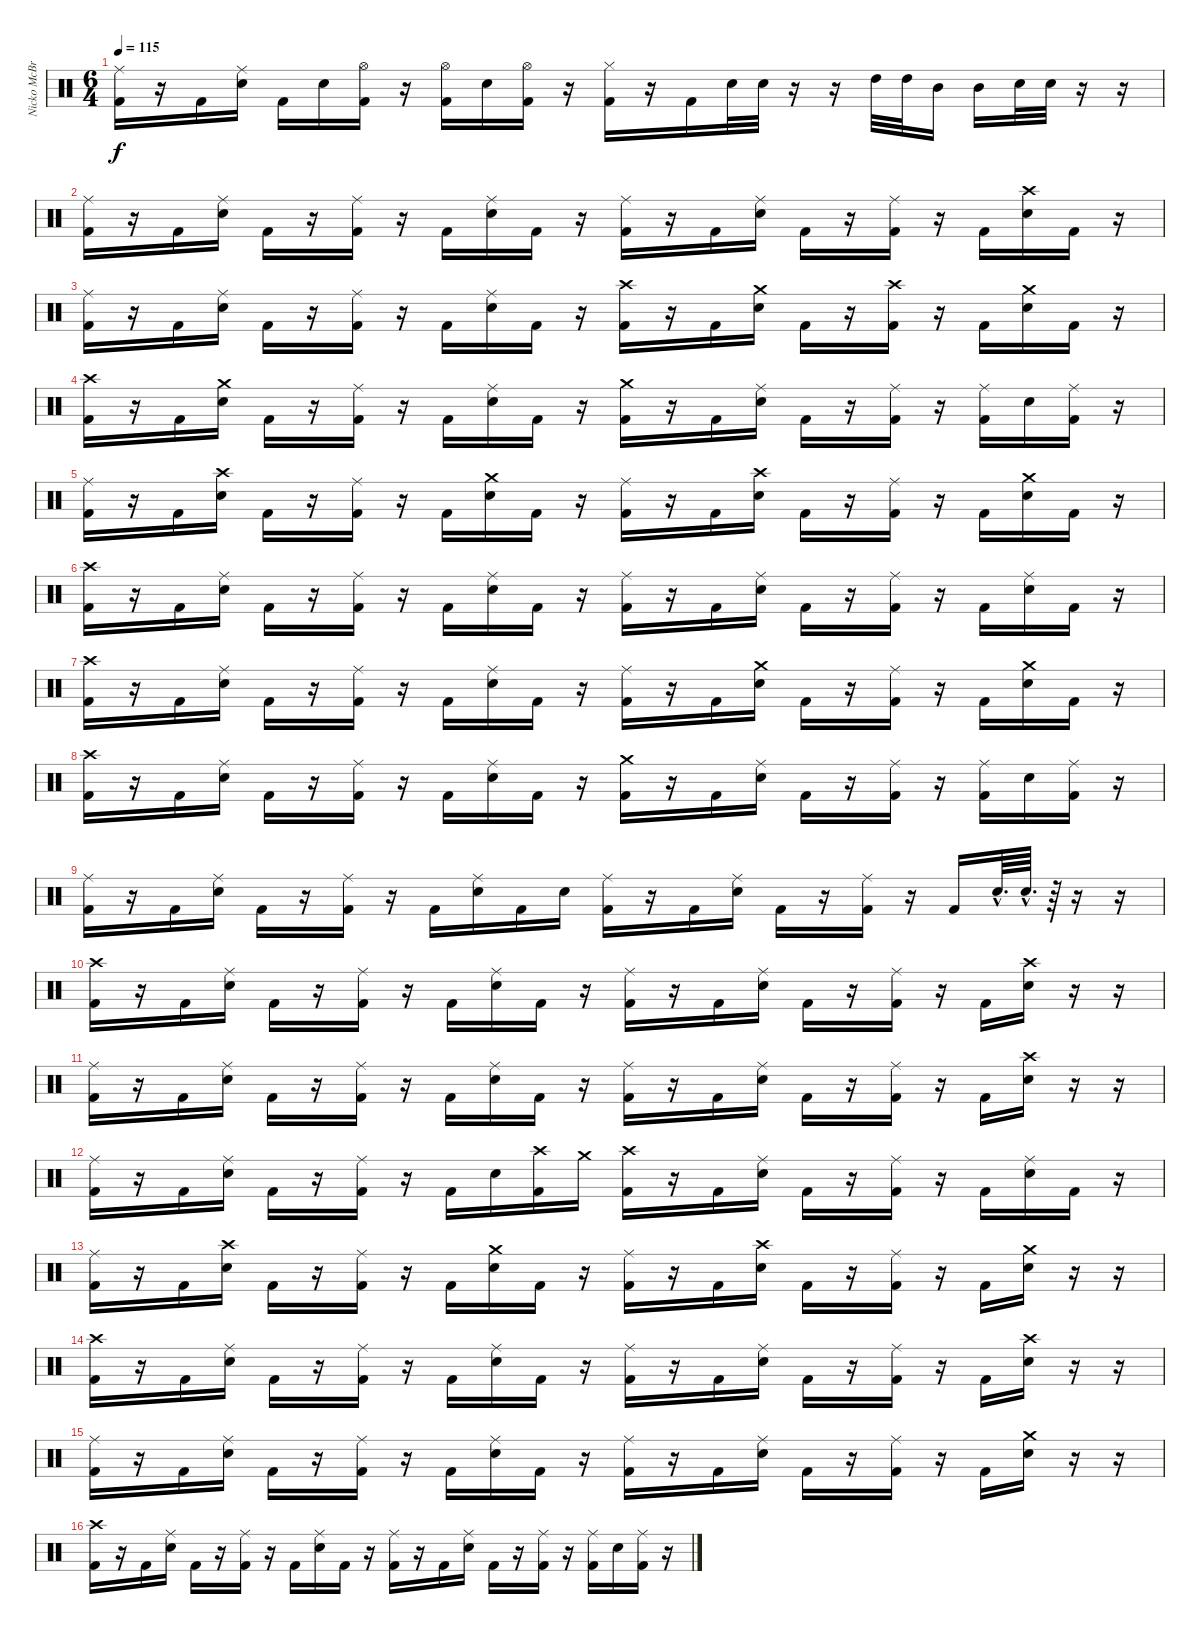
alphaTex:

\track ("Nicko McBrain" "Nicko McBr") {instrument percussion}
\staff {score}
\articulation defaults
\ts (6 4)
\tempo 115
\clef neutral
\ks c
("Ride (middle)" "Kick (hit) 2").16{dy f} r.16 "Kick (hit) 2".16 ("Electric Snare (hit)" "Ride (middle)").16 "Kick (hit) 2".16 "Electric Snare (hit)".16 ("Kick (hit) 2" "Hi-Hat (open)").16 r.16 ("Hi-Hat (open)" "Kick (hit) 2").16 "Electric Snare (hit)".16 ("Hi-Hat (open)" "Kick (hit) 2").16 r.16 ("Kick (hit) 2" "Hi-Hat (closed)").16 r.16 "Kick (hit) 2".16 "Electric Snare (hit)".32 "Electric Snare (hit)".32 r.16 r.16 "High Tom (hit)".32 "High Tom (hit)".32 "Mid Tom (hit)".16 "Mid Tom (hit)".16 "Electric Snare (hit)".32 "Electric Snare (hit)".32 r.16 r.16 |
("Ride (middle)" "Kick (hit) 2").16 r.16 "Kick (hit) 2".16 ("Ride (middle)" "Electric Snare (hit)").16 "Kick (hit) 2".16 r.16 ("Ride (middle)" "Kick (hit) 2").16 r.16 "Kick (hit) 2".16 ("Ride (middle)" "Electric Snare (hit)").16 "Kick (hit) 2".16 r.16 ("Kick (hit) 2" "Ride (middle)").16 r.16 "Kick (hit) 2".16 ("Ride (middle)" "Electric Snare (hit)").16 "Kick (hit) 2".16 r.16 ("Ride (middle)" "Kick (hit) 2").16 r.16 "Kick (hit) 2".16 ("Electric Snare (hit)" "Crash high (hit)").16 "Kick (hit) 2".16 r.16 |
("Ride (middle)" "Kick (hit) 2").16 r.16 "Kick (hit) 2".16 ("Ride (middle)" "Electric Snare (hit)").16 "Kick (hit) 2".16 r.16 ("Ride (middle)" "Kick (hit) 2").16 r.16 "Kick (hit) 2".16 ("Ride (middle)" "Electric Snare (hit)").16 "Kick (hit) 2".16 r.16 ("Kick (hit) 2" "Crash high (hit)").16 r.16 "Kick (hit) 2".16 ("Crash medium (hit)" "Electric Snare (hit)").16 "Kick (hit) 2".16 r.16 ("Crash high (hit)" "Kick (hit) 2").16 r.16 "Kick (hit) 2".16 ("Electric Snare (hit)" "Crash medium (hit)").16 "Kick (hit) 2".16 r.16 |
("Crash high (hit)" "Kick (hit) 2").16 r.16 "Kick (hit) 2".16 ("Crash medium (hit)" "Electric Snare (hit)").16 "Kick (hit) 2".16 r.16 ("Ride (middle)" "Kick (hit) 2").16 r.16 "Kick (hit) 2".16 ("Ride (middle)" "Electric Snare (hit)").16 "Kick (hit) 2".16 r.16 ("Kick (hit) 2" "Crash medium (hit)").16 r.16 "Kick (hit) 2".16 ("Ride (middle)" "Electric Snare (hit)").16 "Kick (hit) 2".16 r.16 ("Ride (middle)" "Kick (hit) 2").16 r.16 ("Ride (middle)" "Kick (hit) 2").16 "Electric Snare (hit)".16 ("Kick (hit) 2" "Ride (middle)").16 r.16 |
("Ride (middle)" "Kick (hit) 2").16 r.16 "Kick (hit) 2".16 ("Crash high (hit)" "Electric Snare (hit)").16 "Kick (hit) 2".16 r.16 ("Ride (middle)" "Kick (hit) 2").16 r.16 "Kick (hit) 2".16 ("Crash medium (hit)" "Electric Snare (hit)").16 "Kick (hit) 2".16 r.16 ("Kick (hit) 2" "Ride (middle)").16 r.16 "Kick (hit) 2".16 ("Crash high (hit)" "Electric Snare (hit)").16 "Kick (hit) 2".16 r.16 ("Ride (middle)" "Kick (hit) 2").16 r.16 "Kick (hit) 2".16 ("Electric Snare (hit)" "Crash medium (hit)").16 "Kick (hit) 2".16 r.16 |
("Crash high (hit)" "Kick (hit) 2").16 r.16 "Kick (hit) 2".16 ("Ride (middle)" "Electric Snare (hit)").16 "Kick (hit) 2".16 r.16 ("Ride (middle)" "Kick (hit) 2").16 r.16 "Kick (hit) 2".16 ("Ride (middle)" "Electric Snare (hit)").16 "Kick (hit) 2".16 r.16 ("Kick (hit) 2" "Ride (middle)").16 r.16 "Kick (hit) 2".16 ("Ride (middle)" "Electric Snare (hit)").16 "Kick (hit) 2".16 r.16 ("Ride (middle)" "Kick (hit) 2").16 r.16 "Kick (hit) 2".16 ("Electric Snare (hit)" "Ride (middle)").16 "Kick (hit) 2".16 r.16 |
("Crash high (hit)" "Kick (hit) 2").16 r.16 "Kick (hit) 2".16 ("Ride (middle)" "Electric Snare (hit)").16 "Kick (hit) 2".16 r.16 ("Ride (middle)" "Kick (hit) 2").16 r.16 "Kick (hit) 2".16 ("Ride (middle)" "Electric Snare (hit)").16 "Kick (hit) 2".16 r.16 ("Kick (hit) 2" "Ride (middle)").16 r.16 "Kick (hit) 2".16 ("Crash medium (hit)" "Electric Snare (hit)").16 "Kick (hit) 2".16 r.16 ("Ride (middle)" "Kick (hit) 2").16 r.16 "Kick (hit) 2".16 ("Electric Snare (hit)" "Crash medium (hit)").16 "Kick (hit) 2".16 r.16 |
("Crash high (hit)" "Kick (hit) 2").16 r.16 "Kick (hit) 2".16 ("Ride (middle)" "Electric Snare (hit)").16 "Kick (hit) 2".16 r.16 ("Ride (middle)" "Kick (hit) 2").16 r.16 "Kick (hit) 2".16 ("Ride (middle)" "Electric Snare (hit)").16 "Kick (hit) 2".16 r.16 ("Kick (hit) 2" "Crash medium (hit)").16 r.16 "Kick (hit) 2".16 ("Ride (middle)" "Electric Snare (hit)").16 "Kick (hit) 2".16 r.16 ("Ride (middle)" "Kick (hit) 2").16 r.16 ("Ride (middle)" "Kick (hit) 2").16 "Electric Snare (hit)".16 ("Kick (hit) 2" "Ride (middle)").16 r.16 |
("Ride (middle)" "Kick (hit) 2").16 r.16 "Kick (hit) 2".16 ("Ride (middle)" "Electric Snare (hit)").16 "Kick (hit) 2".16 r.16 ("Ride (middle)" "Kick (hit) 2").16 r.16 "Kick (hit) 2".16 ("Ride (middle)" "Electric Snare (hit)").16 "Kick (hit) 2".16 "Electric Snare (hit)".16 ("Kick (hit) 2" "Ride (middle)").16 r.16 "Kick (hit) 2".16 ("Ride (middle)" "Electric Snare (hit)").16 "Kick (hit) 2".16 r.16 ("Ride (middle)" "Kick (hit) 2").16 r.16 "Kick (hit) 2".16 "Electric Snare (hit)"{hac}.64{d} "Electric Snare (hit)"{hac}.64{d} r.64 r.16 r.16 |
("Kick (hit) 2" "Crash high (hit)").16 r.16 "Kick (hit) 2".16 ("Ride (middle)" "Electric Snare (hit)").16 "Kick (hit) 2".16 r.16 ("Ride (middle)" "Kick (hit) 2").16 r.16 "Kick (hit) 2".16 ("Ride (middle)" "Electric Snare (hit)").16 "Kick (hit) 2".16 r.16 ("Ride (middle)" "Kick (hit) 2").16 r.16 "Kick (hit) 2".16 ("Ride (middle)" "Electric Snare (hit)").16 "Kick (hit) 2".16 r.16 ("Ride (middle)" "Kick (hit) 2").16 r.16 "Kick (hit) 2".16 ("Crash high (hit)" "Electric Snare (hit)").16 r.16 r.16 |
("Kick (hit) 2" "Ride (middle)").16 r.16 "Kick (hit) 2".16 ("Ride (middle)" "Electric Snare (hit)").16 "Kick (hit) 2".16 r.16 ("Ride (middle)" "Kick (hit) 2").16 r.16 "Kick (hit) 2".16 ("Ride (middle)" "Electric Snare (hit)").16 "Kick (hit) 2".16 r.16 ("Ride (middle)" "Kick (hit) 2").16 r.16 "Kick (hit) 2".16 ("Ride (middle)" "Electric Snare (hit)").16 "Kick (hit) 2".16 r.16 ("Ride (middle)" "Kick (hit) 2").16 r.16 "Kick (hit) 2".16 ("Crash high (hit)" "Electric Snare (hit)").16 r.16 r.16 |
("Kick (hit) 2" "Ride (middle)").16 r.16 "Kick (hit) 2".16 ("Ride (middle)" "Electric Snare (hit)").16 "Kick (hit) 2".16 r.16 ("Ride (middle)" "Kick (hit) 2").16 r.16 "Kick (hit) 2".16 "Electric Snare (hit)".16 ("Crash high (hit)" "Kick (hit) 2").16 "Crash medium (hit)".16 ("Crash high (hit)" "Kick (hit) 2").16 r.16 "Kick (hit) 2".16 ("Ride (middle)" "Electric Snare (hit)").16 "Kick (hit) 2".16 r.16 ("Ride (middle)" "Kick (hit) 2").16 r.16 "Kick (hit) 2".16 ("Ride (middle)" "Electric Snare (hit)").16 "Kick (hit) 2".16 r.16 |
("Kick (hit) 2" "Ride (middle)").16 r.16 "Kick (hit) 2".16 ("Crash high (hit)" "Electric Snare (hit)").16 "Kick (hit) 2".16 r.16 ("Ride (middle)" "Kick (hit) 2").16 r.16 "Kick (hit) 2".16 ("Crash medium (hit)" "Electric Snare (hit)").16 "Kick (hit) 2".16 r.16 ("Ride (middle)" "Kick (hit) 2").16 r.16 "Kick (hit) 2".16 ("Crash high (hit)" "Electric Snare (hit)").16 "Kick (hit) 2".16 r.16 ("Ride (middle)" "Kick (hit) 2").16 r.16 "Kick (hit) 2".16 ("Crash medium (hit)" "Electric Snare (hit)").16 r.16 r.16 |
("Kick (hit) 2" "Crash high (hit)").16 r.16 "Kick (hit) 2".16 ("Ride (middle)" "Electric Snare (hit)").16 "Kick (hit) 2".16 r.16 ("Ride (middle)" "Kick (hit) 2").16 r.16 "Kick (hit) 2".16 ("Ride (middle)" "Electric Snare (hit)").16 "Kick (hit) 2".16 r.16 ("Ride (middle)" "Kick (hit) 2").16 r.16 "Kick (hit) 2".16 ("Ride (middle)" "Electric Snare (hit)").16 "Kick (hit) 2".16 r.16 ("Ride (middle)" "Kick (hit) 2").16 r.16 "Kick (hit) 2".16 ("Crash high (hit)" "Electric Snare (hit)").16 r.16 r.16 |
("Kick (hit) 2" "Ride (middle)").16 r.16 "Kick (hit) 2".16 ("Ride (middle)" "Electric Snare (hit)").16 "Kick (hit) 2".16 r.16 ("Ride (middle)" "Kick (hit) 2").16 r.16 "Kick (hit) 2".16 ("Ride (middle)" "Electric Snare (hit)").16 "Kick (hit) 2".16 r.16 ("Ride (middle)" "Kick (hit) 2").16 r.16 "Kick (hit) 2".16 ("Ride (middle)" "Electric Snare (hit)").16 "Kick (hit) 2".16 r.16 ("Ride (middle)" "Kick (hit) 2").16 r.16 "Kick (hit) 2".16 ("Crash medium (hit)" "Electric Snare (hit)").16 r.16 r.16 |
("Kick (hit) 2" "Crash high (hit)").16 r.16 "Kick (hit) 2".16 ("Ride (middle)" "Electric Snare (hit)").16 "Kick (hit) 2".16 r.16 ("Ride (middle)" "Kick (hit) 2").16 r.16 "Kick (hit) 2".16 ("Ride (middle)" "Electric Snare (hit)").16 "Kick (hit) 2".16 r.16 ("Ride (middle)" "Kick (hit) 2").16 r.16 "Kick (hit) 2".16 ("Ride (middle)" "Electric Snare (hit)").16 "Kick (hit) 2".16 r.16 ("Ride (middle)" "Kick (hit) 2").16 r.16 ("Ride (middle)" "Kick (hit) 2").16 "Electric Snare (hit)".16 ("Ride (middle)" "Kick (hit) 2").16 r.16
